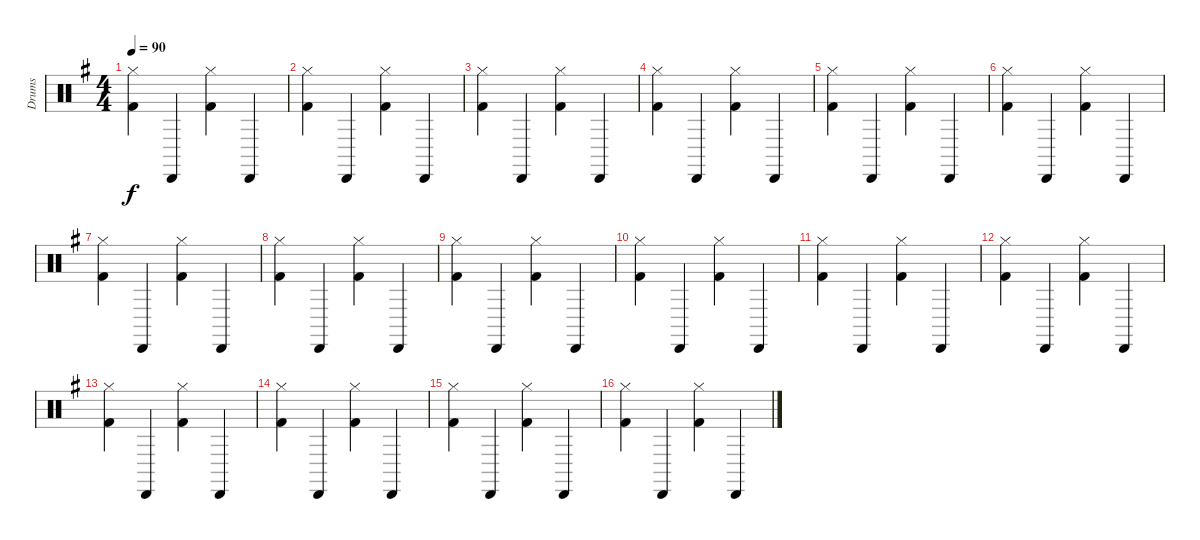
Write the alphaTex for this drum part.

\track ("Drums" "Drums") {instrument percussion}
\staff {score}
\articulation defaults
\ts (4 4)
\tempo 90
\clef neutral
\ks g
("Kick (hit) 2" "Hi-Hat (closed)").4{dy f} "Cabasa (hit)".4 ("Kick (hit) 2" "Hi-Hat (closed)").4 "Cabasa (hit)".4 |
("Kick (hit) 2" "Hi-Hat (closed)").4 "Cabasa (hit)".4 ("Kick (hit) 2" "Hi-Hat (closed)").4 "Cabasa (hit)".4 |
("Kick (hit) 2" "Hi-Hat (closed)").4 "Cabasa (hit)".4 ("Kick (hit) 2" "Hi-Hat (closed)").4 "Cabasa (hit)".4 |
("Kick (hit) 2" "Hi-Hat (closed)").4 "Cabasa (hit)".4 ("Kick (hit) 2" "Hi-Hat (closed)").4 "Cabasa (hit)".4 |
("Kick (hit) 2" "Hi-Hat (closed)").4 "Cabasa (hit)".4 ("Kick (hit) 2" "Hi-Hat (closed)").4 "Cabasa (hit)".4 |
("Kick (hit) 2" "Hi-Hat (closed)").4 "Cabasa (hit)".4 ("Kick (hit) 2" "Hi-Hat (closed)").4 "Cabasa (hit)".4 |
("Kick (hit) 2" "Hi-Hat (closed)").4 "Cabasa (hit)".4 ("Kick (hit) 2" "Hi-Hat (closed)").4 "Cabasa (hit)".4 |
("Kick (hit) 2" "Hi-Hat (closed)").4 "Cabasa (hit)".4 ("Kick (hit) 2" "Hi-Hat (closed)").4 "Cabasa (hit)".4 |
("Kick (hit) 2" "Hi-Hat (closed)").4 "Cabasa (hit)".4 ("Kick (hit) 2" "Hi-Hat (closed)").4 "Cabasa (hit)".4 |
("Kick (hit) 2" "Hi-Hat (closed)").4 "Cabasa (hit)".4 ("Kick (hit) 2" "Hi-Hat (closed)").4 "Cabasa (hit)".4 |
("Kick (hit) 2" "Hi-Hat (closed)").4 "Cabasa (hit)".4 ("Kick (hit) 2" "Hi-Hat (closed)").4 "Cabasa (hit)".4 |
("Kick (hit) 2" "Hi-Hat (closed)").4 "Cabasa (hit)".4 ("Kick (hit) 2" "Hi-Hat (closed)").4 "Cabasa (hit)".4 |
("Kick (hit) 2" "Hi-Hat (closed)").4 "Cabasa (hit)".4 ("Kick (hit) 2" "Hi-Hat (closed)").4 "Cabasa (hit)".4 |
("Kick (hit) 2" "Hi-Hat (closed)").4 "Cabasa (hit)".4 ("Kick (hit) 2" "Hi-Hat (closed)").4 "Cabasa (hit)".4 |
("Kick (hit) 2" "Hi-Hat (closed)").4 "Cabasa (hit)".4 ("Kick (hit) 2" "Hi-Hat (closed)").4 "Cabasa (hit)".4 |
("Kick (hit) 2" "Hi-Hat (closed)").4 "Cabasa (hit)".4 ("Kick (hit) 2" "Hi-Hat (closed)").4 "Cabasa (hit)".4
